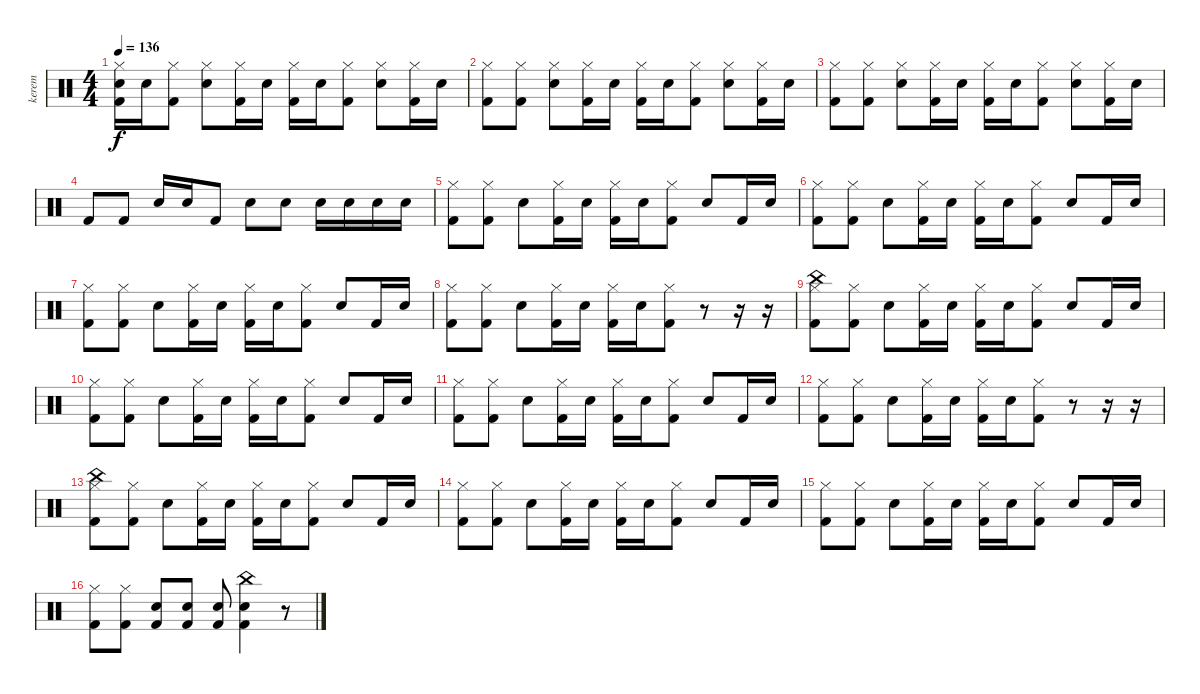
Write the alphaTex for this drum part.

\track ("kerem" "kerem") {instrument percussion}
\staff {score}
\articulation defaults
\ts (4 4)
\tempo 136
\clef neutral
\ks c
("Kick (hit) 2" "Electric Snare (hit)" "Hi-Hat (closed)").16{dy f} "Electric Snare (hit)".16 ("Kick (hit) 2" "Hi-Hat (closed)").8 ("Electric Snare (hit)" "Hi-Hat (closed)").8 ("Kick (hit) 2" "Hi-Hat (closed)").16 "Electric Snare (hit)".16 ("Kick (hit) 2" "Hi-Hat (closed)").16 "Electric Snare (hit)".16 ("Kick (hit) 2" "Hi-Hat (closed)").8 ("Electric Snare (hit)" "Hi-Hat (closed)").8 ("Kick (hit) 2" "Hi-Hat (closed)").16 "Electric Snare (hit)".16 |
("Kick (hit) 2" "Hi-Hat (closed)").8 ("Kick (hit) 2" "Hi-Hat (closed)").8 ("Electric Snare (hit)" "Hi-Hat (closed)").8 ("Kick (hit) 2" "Hi-Hat (closed)").16 "Electric Snare (hit)".16 ("Kick (hit) 2" "Hi-Hat (closed)").16 "Electric Snare (hit)".16 ("Kick (hit) 2" "Hi-Hat (closed)").8 ("Electric Snare (hit)" "Hi-Hat (closed)").8 ("Kick (hit) 2" "Hi-Hat (closed)").16 "Electric Snare (hit)".16 |
("Kick (hit) 2" "Hi-Hat (closed)").8 ("Kick (hit) 2" "Hi-Hat (closed)").8 ("Electric Snare (hit)" "Hi-Hat (closed)").8 ("Kick (hit) 2" "Hi-Hat (closed)").16 "Electric Snare (hit)".16 ("Kick (hit) 2" "Hi-Hat (closed)").16 "Electric Snare (hit)".16 ("Kick (hit) 2" "Hi-Hat (closed)").8 ("Electric Snare (hit)" "Hi-Hat (closed)").8 ("Kick (hit) 2" "Hi-Hat (closed)").16 "Electric Snare (hit)".16 |
"Kick (hit) 2".8 "Kick (hit) 2".8 "Electric Snare (hit)".16 "Electric Snare (hit)".16 "Kick (hit) 2".8 "Electric Snare (hit)".8 "Electric Snare (hit)".8 "Electric Snare (hit)".16 "Electric Snare (hit)".16 "Electric Snare (hit)".16 "Electric Snare (hit)".16 |
("Hi-Hat (closed)" "Kick (hit) 2").8 ("Hi-Hat (closed)" "Kick (hit) 2").8 "Electric Snare (hit)".8 ("Kick (hit) 2" "Hi-Hat (closed)").16 "Electric Snare (hit)".16 ("Kick (hit) 2" "Hi-Hat (closed)").16 "Electric Snare (hit)".16 ("Kick (hit) 2" "Hi-Hat (closed)").8 "Electric Snare (hit)".8 "Kick (hit) 2".16 "Electric Snare (hit)".16 |
("Hi-Hat (closed)" "Kick (hit) 2").8 ("Hi-Hat (closed)" "Kick (hit) 2").8 "Electric Snare (hit)".8 ("Kick (hit) 2" "Hi-Hat (closed)").16 "Electric Snare (hit)".16 ("Kick (hit) 2" "Hi-Hat (closed)").16 "Electric Snare (hit)".16 ("Kick (hit) 2" "Hi-Hat (closed)").8 "Electric Snare (hit)".8 "Kick (hit) 2".16 "Electric Snare (hit)".16 |
("Hi-Hat (closed)" "Kick (hit) 2").8 ("Hi-Hat (closed)" "Kick (hit) 2").8 "Electric Snare (hit)".8 ("Kick (hit) 2" "Hi-Hat (closed)").16 "Electric Snare (hit)".16 ("Kick (hit) 2" "Hi-Hat (closed)").16 "Electric Snare (hit)".16 ("Kick (hit) 2" "Hi-Hat (closed)").8 "Electric Snare (hit)".8 "Kick (hit) 2".16 "Electric Snare (hit)".16 |
("Hi-Hat (closed)" "Kick (hit) 2").8 ("Hi-Hat (closed)" "Kick (hit) 2").8 "Electric Snare (hit)".8 ("Kick (hit) 2" "Hi-Hat (closed)").16 "Electric Snare (hit)".16 ("Kick (hit) 2" "Hi-Hat (closed)").16 "Electric Snare (hit)".16 ("Kick (hit) 2" "Hi-Hat (closed)").8 r.8 r.16 r.16 |
("China (hit)" "Hi-Hat (closed)" "Kick (hit) 2").8 ("Hi-Hat (closed)" "Kick (hit) 2").8 "Electric Snare (hit)".8 ("Kick (hit) 2" "Hi-Hat (closed)").16 "Electric Snare (hit)".16 ("Kick (hit) 2" "Hi-Hat (closed)").16 "Electric Snare (hit)".16 ("Kick (hit) 2" "Hi-Hat (closed)").8 "Electric Snare (hit)".8 "Kick (hit) 2".16 "Electric Snare (hit)".16 |
("Hi-Hat (closed)" "Kick (hit) 2").8 ("Hi-Hat (closed)" "Kick (hit) 2").8 "Electric Snare (hit)".8 ("Kick (hit) 2" "Hi-Hat (closed)").16 "Electric Snare (hit)".16 ("Kick (hit) 2" "Hi-Hat (closed)").16 "Electric Snare (hit)".16 ("Kick (hit) 2" "Hi-Hat (closed)").8 "Electric Snare (hit)".8 "Kick (hit) 2".16 "Electric Snare (hit)".16 |
("Hi-Hat (closed)" "Kick (hit) 2").8 ("Hi-Hat (closed)" "Kick (hit) 2").8 "Electric Snare (hit)".8 ("Kick (hit) 2" "Hi-Hat (closed)").16 "Electric Snare (hit)".16 ("Kick (hit) 2" "Hi-Hat (closed)").16 "Electric Snare (hit)".16 ("Kick (hit) 2" "Hi-Hat (closed)").8 "Electric Snare (hit)".8 "Kick (hit) 2".16 "Electric Snare (hit)".16 |
("Hi-Hat (closed)" "Kick (hit) 2").8 ("Hi-Hat (closed)" "Kick (hit) 2").8 "Electric Snare (hit)".8 ("Kick (hit) 2" "Hi-Hat (closed)").16 "Electric Snare (hit)".16 ("Kick (hit) 2" "Hi-Hat (closed)").16 "Electric Snare (hit)".16 ("Kick (hit) 2" "Hi-Hat (closed)").8 r.8 r.16 r.16 |
("China (hit)" "Hi-Hat (closed)" "Kick (hit) 2").8 ("Hi-Hat (closed)" "Kick (hit) 2").8 "Electric Snare (hit)".8 ("Kick (hit) 2" "Hi-Hat (closed)").16 "Electric Snare (hit)".16 ("Kick (hit) 2" "Hi-Hat (closed)").16 "Electric Snare (hit)".16 ("Kick (hit) 2" "Hi-Hat (closed)").8 "Electric Snare (hit)".8 "Kick (hit) 2".16 "Electric Snare (hit)".16 |
("Hi-Hat (closed)" "Kick (hit) 2").8 ("Hi-Hat (closed)" "Kick (hit) 2").8 "Electric Snare (hit)".8 ("Kick (hit) 2" "Hi-Hat (closed)").16 "Electric Snare (hit)".16 ("Kick (hit) 2" "Hi-Hat (closed)").16 "Electric Snare (hit)".16 ("Kick (hit) 2" "Hi-Hat (closed)").8 "Electric Snare (hit)".8 "Kick (hit) 2".16 "Electric Snare (hit)".16 |
("Hi-Hat (closed)" "Kick (hit) 2").8 ("Hi-Hat (closed)" "Kick (hit) 2").8 "Electric Snare (hit)".8 ("Kick (hit) 2" "Hi-Hat (closed)").16 "Electric Snare (hit)".16 ("Kick (hit) 2" "Hi-Hat (closed)").16 "Electric Snare (hit)".16 ("Kick (hit) 2" "Hi-Hat (closed)").8 "Electric Snare (hit)".8 "Kick (hit) 2".16 "Electric Snare (hit)".16 |
("Hi-Hat (closed)" "Kick (hit) 2").8 ("Hi-Hat (closed)" "Kick (hit) 2").8 ("Kick (hit) 2" "Electric Snare (hit)").8 ("Kick (hit) 2" "Electric Snare (hit)").8 ("Kick (hit) 2" "Electric Snare (hit)").8 ("China (hit)" "Kick (hit) 2" "Electric Snare (hit)").4 r.8
